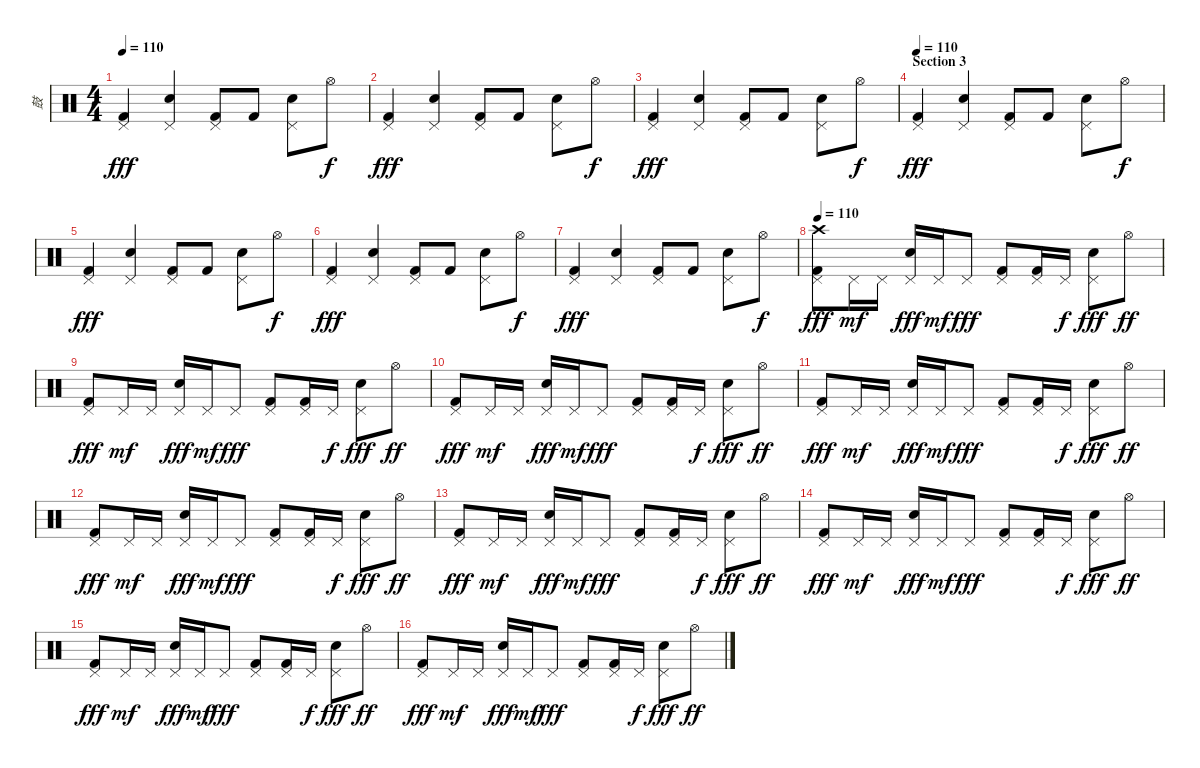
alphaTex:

\track ("鼓" "鼓") {instrument percussion}
\staff {score}
\articulation defaults
\ts (4 4)
\tempo 110
\clef neutral
\ks c
("Pedal Hi-Hat (hit)" "Kick (hit) 2").4{dy fff} ("Pedal Hi-Hat (hit)" "Electric Snare (hit)").4 ("Pedal Hi-Hat (hit)" "Kick (hit) 2").8 "Kick (hit) 2".8 ("Pedal Hi-Hat (hit)" "Electric Snare (hit)").8 "Hi-Hat (open)".8{dy f} |
("Pedal Hi-Hat (hit)" "Kick (hit) 2").4{dy fff} ("Pedal Hi-Hat (hit)" "Electric Snare (hit)").4 ("Pedal Hi-Hat (hit)" "Kick (hit) 2").8 "Kick (hit) 2".8 ("Pedal Hi-Hat (hit)" "Electric Snare (hit)").8 "Hi-Hat (open)".8{dy f} |
("Pedal Hi-Hat (hit)" "Kick (hit) 2").4{dy fff} ("Pedal Hi-Hat (hit)" "Electric Snare (hit)").4 ("Pedal Hi-Hat (hit)" "Kick (hit) 2").8 "Kick (hit) 2".8 ("Pedal Hi-Hat (hit)" "Electric Snare (hit)").8 "Hi-Hat (open)".8{dy f} |
\section ("" "Section 3")
\tempo 110
("Pedal Hi-Hat (hit)" "Kick (hit) 2").4{dy fff} ("Pedal Hi-Hat (hit)" "Electric Snare (hit)").4 ("Pedal Hi-Hat (hit)" "Kick (hit) 2").8 "Kick (hit) 2".8 ("Pedal Hi-Hat (hit)" "Electric Snare (hit)").8 "Hi-Hat (open)".8{dy f} |
("Pedal Hi-Hat (hit)" "Kick (hit) 2").4{dy fff} ("Pedal Hi-Hat (hit)" "Electric Snare (hit)").4 ("Pedal Hi-Hat (hit)" "Kick (hit) 2").8 "Kick (hit) 2".8 ("Pedal Hi-Hat (hit)" "Electric Snare (hit)").8 "Hi-Hat (open)".8{dy f} |
("Pedal Hi-Hat (hit)" "Kick (hit) 2").4{dy fff} ("Pedal Hi-Hat (hit)" "Electric Snare (hit)").4 ("Pedal Hi-Hat (hit)" "Kick (hit) 2").8 "Kick (hit) 2".8 ("Pedal Hi-Hat (hit)" "Electric Snare (hit)").8 "Hi-Hat (open)".8{dy f} |
("Pedal Hi-Hat (hit)" "Kick (hit) 2").4{dy fff} ("Pedal Hi-Hat (hit)" "Electric Snare (hit)").4 ("Pedal Hi-Hat (hit)" "Kick (hit) 2").8 "Kick (hit) 2".8 ("Pedal Hi-Hat (hit)" "Electric Snare (hit)").8 "Hi-Hat (open)".8{dy f} |
\tempo 110
("Pedal Hi-Hat (hit)" "Crash high (hit)" "Kick (hit) 2").8{dy fff} "Pedal Hi-Hat (hit)".16{dy mf} "Pedal Hi-Hat (hit)".16 ("Pedal Hi-Hat (hit)" "Electric Snare (hit)").16{dy fff} "Pedal Hi-Hat (hit)".16{dy mf} "Pedal Hi-Hat (hit)".8{dy fff} ("Pedal Hi-Hat (hit)" "Kick (hit) 2").8 ("Pedal Hi-Hat (hit)" "Kick (hit) 2").16 "Pedal Hi-Hat (hit)".16{dy f} ("Pedal Hi-Hat (hit)" "Electric Snare (hit)").8{dy fff} "Hi-Hat (open)".8{dy ff} |
("Pedal Hi-Hat (hit)" "Kick (hit) 2").8{dy fff} "Pedal Hi-Hat (hit)".16{dy mf} "Pedal Hi-Hat (hit)".16 ("Pedal Hi-Hat (hit)" "Electric Snare (hit)").16{dy fff} "Pedal Hi-Hat (hit)".16{dy mf} "Pedal Hi-Hat (hit)".8{dy fff} ("Pedal Hi-Hat (hit)" "Kick (hit) 2").8 ("Pedal Hi-Hat (hit)" "Kick (hit) 2").16 "Pedal Hi-Hat (hit)".16{dy f} ("Pedal Hi-Hat (hit)" "Electric Snare (hit)").8{dy fff} "Hi-Hat (open)".8{dy ff} |
("Pedal Hi-Hat (hit)" "Kick (hit) 2").8{dy fff} "Pedal Hi-Hat (hit)".16{dy mf} "Pedal Hi-Hat (hit)".16 ("Pedal Hi-Hat (hit)" "Electric Snare (hit)").16{dy fff} "Pedal Hi-Hat (hit)".16{dy mf} "Pedal Hi-Hat (hit)".8{dy fff} ("Pedal Hi-Hat (hit)" "Kick (hit) 2").8 ("Pedal Hi-Hat (hit)" "Kick (hit) 2").16 "Pedal Hi-Hat (hit)".16{dy f} ("Pedal Hi-Hat (hit)" "Electric Snare (hit)").8{dy fff} "Hi-Hat (open)".8{dy ff} |
("Pedal Hi-Hat (hit)" "Kick (hit) 2").8{dy fff} "Pedal Hi-Hat (hit)".16{dy mf} "Pedal Hi-Hat (hit)".16 ("Pedal Hi-Hat (hit)" "Electric Snare (hit)").16{dy fff} "Pedal Hi-Hat (hit)".16{dy mf} "Pedal Hi-Hat (hit)".8{dy fff} ("Pedal Hi-Hat (hit)" "Kick (hit) 2").8 ("Pedal Hi-Hat (hit)" "Kick (hit) 2").16 "Pedal Hi-Hat (hit)".16{dy f} ("Pedal Hi-Hat (hit)" "Electric Snare (hit)").8{dy fff} "Hi-Hat (open)".8{dy ff} |
("Pedal Hi-Hat (hit)" "Kick (hit) 2").8{dy fff} "Pedal Hi-Hat (hit)".16{dy mf} "Pedal Hi-Hat (hit)".16 ("Pedal Hi-Hat (hit)" "Electric Snare (hit)").16{dy fff} "Pedal Hi-Hat (hit)".16{dy mf} "Pedal Hi-Hat (hit)".8{dy fff} ("Pedal Hi-Hat (hit)" "Kick (hit) 2").8 ("Pedal Hi-Hat (hit)" "Kick (hit) 2").16 "Pedal Hi-Hat (hit)".16{dy f} ("Pedal Hi-Hat (hit)" "Electric Snare (hit)").8{dy fff} "Hi-Hat (open)".8{dy ff} |
("Pedal Hi-Hat (hit)" "Kick (hit) 2").8{dy fff} "Pedal Hi-Hat (hit)".16{dy mf} "Pedal Hi-Hat (hit)".16 ("Pedal Hi-Hat (hit)" "Electric Snare (hit)").16{dy fff} "Pedal Hi-Hat (hit)".16{dy mf} "Pedal Hi-Hat (hit)".8{dy fff} ("Pedal Hi-Hat (hit)" "Kick (hit) 2").8 ("Pedal Hi-Hat (hit)" "Kick (hit) 2").16 "Pedal Hi-Hat (hit)".16{dy f} ("Pedal Hi-Hat (hit)" "Electric Snare (hit)").8{dy fff} "Hi-Hat (open)".8{dy ff} |
("Pedal Hi-Hat (hit)" "Kick (hit) 2").8{dy fff} "Pedal Hi-Hat (hit)".16{dy mf} "Pedal Hi-Hat (hit)".16 ("Pedal Hi-Hat (hit)" "Electric Snare (hit)").16{dy fff} "Pedal Hi-Hat (hit)".16{dy mf} "Pedal Hi-Hat (hit)".8{dy fff} ("Pedal Hi-Hat (hit)" "Kick (hit) 2").8 ("Pedal Hi-Hat (hit)" "Kick (hit) 2").16 "Pedal Hi-Hat (hit)".16{dy f} ("Pedal Hi-Hat (hit)" "Electric Snare (hit)").8{dy fff} "Hi-Hat (open)".8{dy ff} |
("Pedal Hi-Hat (hit)" "Kick (hit) 2").8{dy fff} "Pedal Hi-Hat (hit)".16{dy mf} "Pedal Hi-Hat (hit)".16 ("Pedal Hi-Hat (hit)" "Electric Snare (hit)").16{dy fff} "Pedal Hi-Hat (hit)".16{dy mf} "Pedal Hi-Hat (hit)".8{dy fff} ("Pedal Hi-Hat (hit)" "Kick (hit) 2").8 ("Pedal Hi-Hat (hit)" "Kick (hit) 2").16 "Pedal Hi-Hat (hit)".16{dy f} ("Pedal Hi-Hat (hit)" "Electric Snare (hit)").8{dy fff} "Hi-Hat (open)".8{dy ff} |
("Pedal Hi-Hat (hit)" "Kick (hit) 2").8{dy fff} "Pedal Hi-Hat (hit)".16{dy mf} "Pedal Hi-Hat (hit)".16 ("Pedal Hi-Hat (hit)" "Electric Snare (hit)").16{dy fff} "Pedal Hi-Hat (hit)".16{dy mf} "Pedal Hi-Hat (hit)".8{dy fff} ("Pedal Hi-Hat (hit)" "Kick (hit) 2").8 ("Pedal Hi-Hat (hit)" "Kick (hit) 2").16 "Pedal Hi-Hat (hit)".16{dy f} ("Pedal Hi-Hat (hit)" "Electric Snare (hit)").8{dy fff} "Hi-Hat (open)".8{dy ff}
